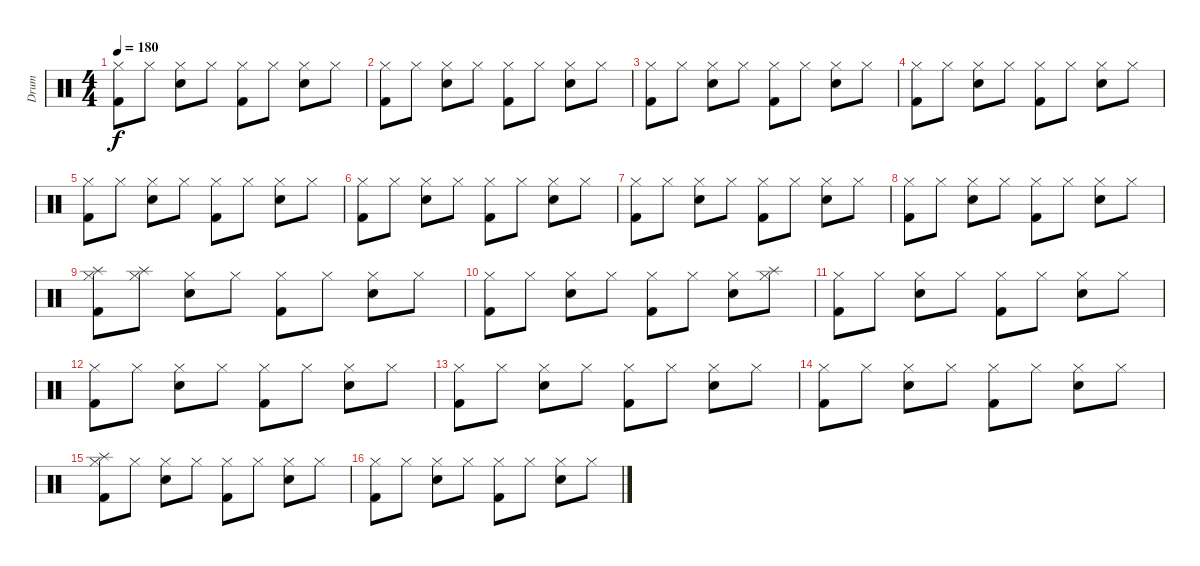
\track ("Drum" "Drum") {instrument percussion}
\staff {score}
\articulation defaults
\ts (4 4)
\tempo 180
\clef neutral
\ks c
("Hi-Hat (closed)" "Kick (hit) 2").8{dy f} "Hi-Hat (closed)".8 ("Hi-Hat (closed)" "Snare (hit) 2").8 "Hi-Hat (closed)".8 ("Hi-Hat (closed)" "Kick (hit) 2").8 "Hi-Hat (closed)".8 ("Hi-Hat (closed)" "Snare (hit) 2").8 "Hi-Hat (closed)".8 |
("Hi-Hat (closed)" "Kick (hit) 2").8 "Hi-Hat (closed)".8 ("Hi-Hat (closed)" "Snare (hit) 2").8 "Hi-Hat (closed)".8 ("Hi-Hat (closed)" "Kick (hit) 2").8 "Hi-Hat (closed)".8 ("Hi-Hat (closed)" "Snare (hit) 2").8 "Hi-Hat (closed)".8 |
("Hi-Hat (closed)" "Kick (hit) 2").8 "Hi-Hat (closed)".8 ("Hi-Hat (closed)" "Snare (hit) 2").8 "Hi-Hat (closed)".8 ("Hi-Hat (closed)" "Kick (hit) 2").8 "Hi-Hat (closed)".8 ("Hi-Hat (closed)" "Snare (hit) 2").8 "Hi-Hat (closed)".8 |
("Hi-Hat (closed)" "Kick (hit) 2").8 "Hi-Hat (closed)".8 ("Hi-Hat (closed)" "Snare (hit) 2").8 "Hi-Hat (closed)".8 ("Hi-Hat (closed)" "Kick (hit) 2").8 "Hi-Hat (closed)".8 ("Hi-Hat (closed)" "Snare (hit) 2").8 "Hi-Hat (closed)".8 |
("Hi-Hat (closed)" "Kick (hit) 2").8 "Hi-Hat (closed)".8 ("Hi-Hat (closed)" "Snare (hit) 2").8 "Hi-Hat (closed)".8 ("Hi-Hat (closed)" "Kick (hit) 2").8 "Hi-Hat (closed)".8 ("Hi-Hat (closed)" "Snare (hit) 2").8 "Hi-Hat (closed)".8 |
("Hi-Hat (closed)" "Kick (hit) 2").8 "Hi-Hat (closed)".8 ("Hi-Hat (closed)" "Snare (hit) 2").8 "Hi-Hat (closed)".8 ("Hi-Hat (closed)" "Kick (hit) 2").8 "Hi-Hat (closed)".8 ("Hi-Hat (closed)" "Snare (hit) 2").8 "Hi-Hat (closed)".8 |
("Hi-Hat (closed)" "Kick (hit) 2").8 "Hi-Hat (closed)".8 ("Hi-Hat (closed)" "Snare (hit) 2").8 "Hi-Hat (closed)".8 ("Hi-Hat (closed)" "Kick (hit) 2").8 "Hi-Hat (closed)".8 ("Hi-Hat (closed)" "Snare (hit) 2").8 "Hi-Hat (closed)".8 |
("Hi-Hat (closed)" "Kick (hit) 2").8 "Hi-Hat (closed)".8 ("Hi-Hat (closed)" "Snare (hit) 2").8 "Hi-Hat (closed)".8 ("Hi-Hat (closed)" "Kick (hit) 2").8 "Hi-Hat (closed)".8 ("Hi-Hat (closed)" "Snare (hit) 2").8 "Hi-Hat (closed)".8 |
("Hi-Hat (closed)" "Kick (hit) 2" "Splash (hit)").8 ("Hi-Hat (closed)" "Splash (hit)").8 ("Hi-Hat (closed)" "Snare (hit) 2").8 "Hi-Hat (closed)".8 ("Hi-Hat (closed)" "Kick (hit) 2").8 "Hi-Hat (closed)".8 ("Hi-Hat (closed)" "Snare (hit) 2").8 "Hi-Hat (closed)".8 |
("Hi-Hat (closed)" "Kick (hit) 2").8 "Hi-Hat (closed)".8 ("Hi-Hat (closed)" "Snare (hit) 2").8 "Hi-Hat (closed)".8 ("Hi-Hat (closed)" "Kick (hit) 2").8 "Hi-Hat (closed)".8 ("Hi-Hat (closed)" "Snare (hit) 2").8 ("Hi-Hat (closed)" "Splash (hit)").8 |
("Hi-Hat (closed)" "Kick (hit) 2").8 "Hi-Hat (closed)".8 ("Hi-Hat (closed)" "Snare (hit) 2").8 "Hi-Hat (closed)".8 ("Hi-Hat (closed)" "Kick (hit) 2").8 "Hi-Hat (closed)".8 ("Hi-Hat (closed)" "Snare (hit) 2").8 "Hi-Hat (closed)".8 |
("Hi-Hat (closed)" "Kick (hit) 2").8 "Hi-Hat (closed)".8 ("Hi-Hat (closed)" "Snare (hit) 2").8 "Hi-Hat (closed)".8 ("Hi-Hat (closed)" "Kick (hit) 2").8 "Hi-Hat (closed)".8 ("Hi-Hat (closed)" "Snare (hit) 2").8 "Hi-Hat (closed)".8 |
("Hi-Hat (closed)" "Kick (hit) 2").8 "Hi-Hat (closed)".8 ("Hi-Hat (closed)" "Snare (hit) 2").8 "Hi-Hat (closed)".8 ("Hi-Hat (closed)" "Kick (hit) 2").8 "Hi-Hat (closed)".8 ("Hi-Hat (closed)" "Snare (hit) 2").8 "Hi-Hat (closed)".8 |
("Hi-Hat (closed)" "Kick (hit) 2").8 "Hi-Hat (closed)".8 ("Hi-Hat (closed)" "Snare (hit) 2").8 "Hi-Hat (closed)".8 ("Hi-Hat (closed)" "Kick (hit) 2").8 "Hi-Hat (closed)".8 ("Hi-Hat (closed)" "Snare (hit) 2").8 "Hi-Hat (closed)".8 |
("Hi-Hat (closed)" "Kick (hit) 2" "Splash (hit)").8 "Hi-Hat (closed)".8 ("Hi-Hat (closed)" "Snare (hit) 2").8 "Hi-Hat (closed)".8 ("Hi-Hat (closed)" "Kick (hit) 2").8 "Hi-Hat (closed)".8 ("Hi-Hat (closed)" "Snare (hit) 2").8 "Hi-Hat (closed)".8 |
("Hi-Hat (closed)" "Kick (hit) 2").8 "Hi-Hat (closed)".8 ("Hi-Hat (closed)" "Snare (hit) 2").8 "Hi-Hat (closed)".8 ("Hi-Hat (closed)" "Kick (hit) 2").8 "Hi-Hat (closed)".8 ("Hi-Hat (closed)" "Snare (hit) 2").8 "Hi-Hat (closed)".8
